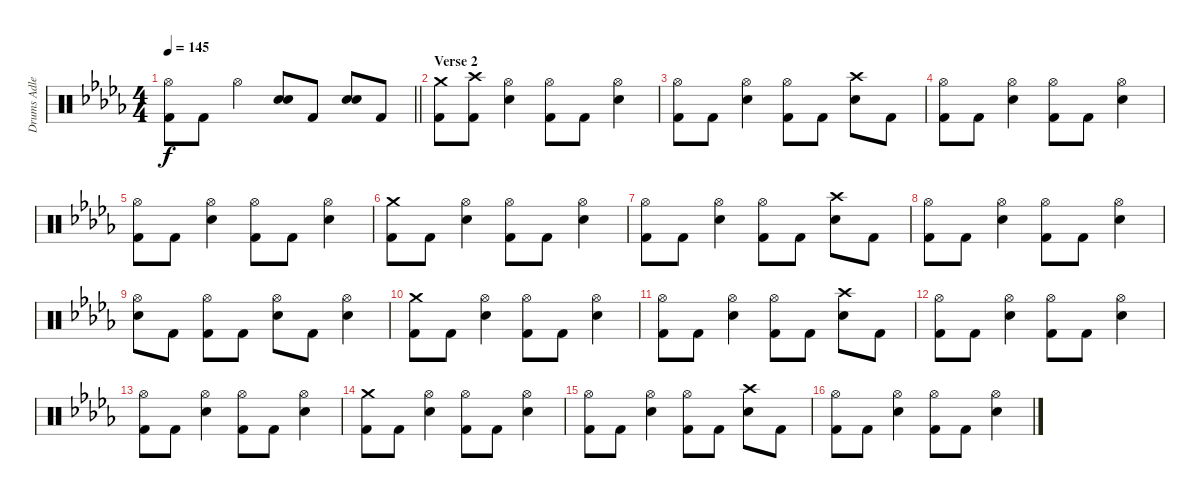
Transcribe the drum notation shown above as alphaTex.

\track ("Drums Adler" "Drums Adle") {instrument percussion}
\staff {score}
\articulation defaults
\ts (4 4)
\tempo 145
\clef neutral
\barLineRight lightlight
\ks db
("Hi-Hat (open)" "Kick (hit) 2").8{dy f} "Kick (hit) 2".8 "Hi-Hat (open)".4 ("Snare (hit) 2" "Snare (hit) 2").8{bd 240} "Kick (hit) 2".8 ("Snare (hit) 2" "Snare (hit) 2").8{bd 240} "Kick (hit) 2".8 |
\section ("" "Verse 2")
("Crash medium (hit)" "Kick (hit) 2").8 ("Crash high (hit)" "Kick (hit) 2").8 ("Hi-Hat (open)" "Snare (hit) 2").4 ("Hi-Hat (open)" "Kick (hit) 2").8 "Kick (hit) 2".8 ("Hi-Hat (open)" "Snare (hit) 2").4 |
("Hi-Hat (open)" "Kick (hit) 2").8 "Kick (hit) 2".8 ("Hi-Hat (open)" "Snare (hit) 2").4 ("Hi-Hat (open)" "Kick (hit) 2").8 "Kick (hit) 2".8 ("Crash high (hit)" "Snare (hit) 2").8 "Kick (hit) 2".8 |
("Hi-Hat (open)" "Kick (hit) 2").8 "Kick (hit) 2".8 ("Hi-Hat (open)" "Snare (hit) 2").4 ("Hi-Hat (open)" "Kick (hit) 2").8 "Kick (hit) 2".8 ("Hi-Hat (open)" "Snare (hit) 2").4 |
("Hi-Hat (open)" "Kick (hit) 2").8 "Kick (hit) 2".8 ("Hi-Hat (open)" "Snare (hit) 2").4 ("Hi-Hat (open)" "Kick (hit) 2").8 "Kick (hit) 2".8 ("Hi-Hat (open)" "Snare (hit) 2").4 |
("Crash medium (hit)" "Kick (hit) 2").8 "Kick (hit) 2".8 ("Hi-Hat (open)" "Snare (hit) 2").4 ("Hi-Hat (open)" "Kick (hit) 2").8 "Kick (hit) 2".8 ("Hi-Hat (open)" "Snare (hit) 2").4 |
("Hi-Hat (open)" "Kick (hit) 2").8 "Kick (hit) 2".8 ("Hi-Hat (open)" "Snare (hit) 2").4 ("Hi-Hat (open)" "Kick (hit) 2").8 "Kick (hit) 2".8 ("Crash high (hit)" "Snare (hit) 2").8 "Kick (hit) 2".8 |
("Hi-Hat (open)" "Kick (hit) 2").8 "Kick (hit) 2".8 ("Hi-Hat (open)" "Snare (hit) 2").4 ("Hi-Hat (open)" "Kick (hit) 2").8 "Kick (hit) 2".8 ("Hi-Hat (open)" "Snare (hit) 2").4 |
("Hi-Hat (open)" "Snare (hit) 2").8 "Kick (hit) 2".8 ("Hi-Hat (open)" "Kick (hit) 2").8 "Kick (hit) 2".8 ("Hi-Hat (open)" "Snare (hit) 2").8 "Kick (hit) 2".8 ("Hi-Hat (open)" "Snare (hit) 2").4 |
("Crash medium (hit)" "Kick (hit) 2").8 "Kick (hit) 2".8 ("Hi-Hat (open)" "Snare (hit) 2").4 ("Hi-Hat (open)" "Kick (hit) 2").8 "Kick (hit) 2".8 ("Hi-Hat (open)" "Snare (hit) 2").4 |
("Hi-Hat (open)" "Kick (hit) 2").8 "Kick (hit) 2".8 ("Hi-Hat (open)" "Snare (hit) 2").4 ("Hi-Hat (open)" "Kick (hit) 2").8 "Kick (hit) 2".8 ("Crash high (hit)" "Snare (hit) 2").8 "Kick (hit) 2".8 |
("Hi-Hat (open)" "Kick (hit) 2").8 "Kick (hit) 2".8 ("Hi-Hat (open)" "Snare (hit) 2").4 ("Hi-Hat (open)" "Kick (hit) 2").8 "Kick (hit) 2".8 ("Hi-Hat (open)" "Snare (hit) 2").4 |
("Hi-Hat (open)" "Kick (hit) 2").8 "Kick (hit) 2".8 ("Hi-Hat (open)" "Snare (hit) 2").4 ("Hi-Hat (open)" "Kick (hit) 2").8 "Kick (hit) 2".8 ("Hi-Hat (open)" "Snare (hit) 2").4 |
("Crash medium (hit)" "Kick (hit) 2").8 "Kick (hit) 2".8 ("Hi-Hat (open)" "Snare (hit) 2").4 ("Hi-Hat (open)" "Kick (hit) 2").8 "Kick (hit) 2".8 ("Hi-Hat (open)" "Snare (hit) 2").4 |
("Hi-Hat (open)" "Kick (hit) 2").8 "Kick (hit) 2".8 ("Hi-Hat (open)" "Snare (hit) 2").4 ("Hi-Hat (open)" "Kick (hit) 2").8 "Kick (hit) 2".8 ("Crash high (hit)" "Snare (hit) 2").8 "Kick (hit) 2".8 |
("Hi-Hat (open)" "Kick (hit) 2").8 "Kick (hit) 2".8 ("Hi-Hat (open)" "Snare (hit) 2").4 ("Hi-Hat (open)" "Kick (hit) 2").8 "Kick (hit) 2".8 ("Hi-Hat (open)" "Snare (hit) 2").4
